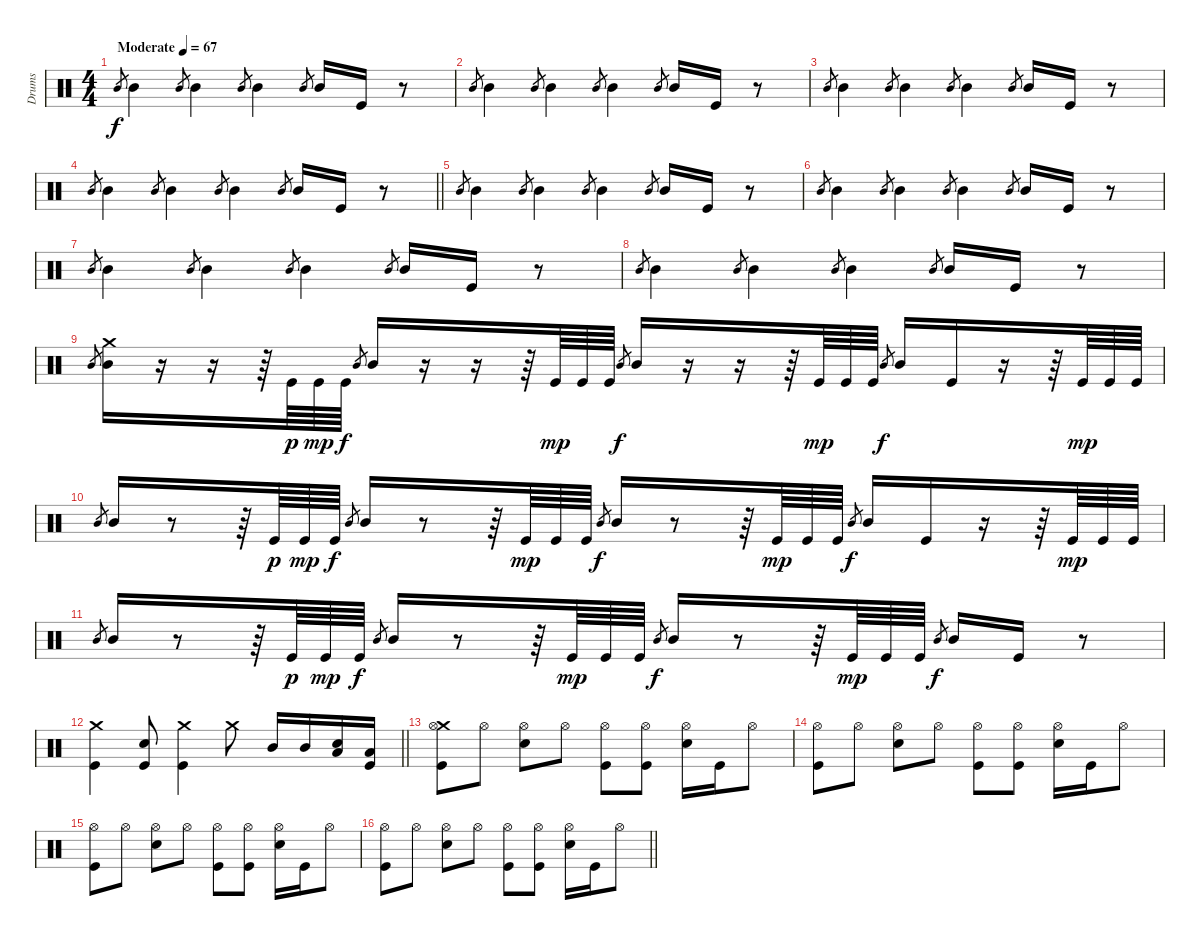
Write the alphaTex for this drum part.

\track ("Drums" "Drums") {instrument percussion}
\staff {score}
\articulation defaults
\ts (4 4)
\tempo (67 "Moderate")
\clef neutral
\ks c "Mid Tom (hit)".8{gr dy f} "Mid Tom (hit)".4 "Mid Tom (hit)".8{gr} "Mid Tom (hit)".4 "Mid Tom (hit)".8{gr} "Mid Tom (hit)".4 "Mid Tom (hit)".8{gr} "Mid Tom (hit)".16 "Kick (hit)".16
r.8 |
"Mid Tom (hit)".8{gr} "Mid Tom (hit)".4 "Mid Tom (hit)".8{gr} "Mid Tom (hit)".4 "Mid Tom (hit)".8{gr} "Mid Tom (hit)".4 "Mid Tom (hit)".8{gr} "Mid Tom (hit)".16 "Kick (hit)".16 r.8 |
"Mid Tom (hit)".8{gr} "Mid Tom (hit)".4 "Mid Tom (hit)".8{gr} "Mid Tom (hit)".4 "Mid Tom (hit)".8{gr} "Mid Tom (hit)".4 "Mid Tom (hit)".8{gr} "Mid Tom (hit)".16 "Kick (hit)".16 r.8 |
\barLineRight lightlight "Mid Tom (hit)".8{gr} "Mid Tom (hit)".4 "Mid Tom (hit)".8{gr} "Mid Tom (hit)".4 "Mid Tom (hit)".8{gr} "Mid Tom (hit)".4 "Mid Tom (hit)".8{gr} "Mid Tom (hit)".16 "Kick (hit)".16
r.8 |
"Mid Tom (hit)".8{gr} "Mid Tom (hit)".4 "Mid Tom (hit)".8{gr} "Mid Tom (hit)".4 "Mid Tom (hit)".8{gr} "Mid Tom (hit)".4 "Mid Tom (hit)".8{gr} "Mid Tom (hit)".16 "Kick (hit)".16 r.8 |
"Mid Tom (hit)".8{gr} "Mid Tom (hit)".4 "Mid Tom (hit)".8{gr} "Mid Tom (hit)".4 "Mid Tom (hit)".8{gr} "Mid Tom (hit)".4 "Mid Tom (hit)".8{gr} "Mid Tom (hit)".16 "Kick (hit)".16 r.8 |
"Mid Tom (hit)".8{gr} "Mid Tom (hit)".4 "Mid Tom (hit)".8{gr} "Mid Tom (hit)".4 "Mid Tom (hit)".8{gr} "Mid Tom (hit)".4 "Mid Tom (hit)".8{gr} "Mid Tom (hit)".16 "Kick (hit)".16 r.8 |
"Mid Tom (hit)".8{gr} "Mid Tom (hit)".4 "Mid Tom (hit)".8{gr} "Mid Tom (hit)".4 "Mid Tom (hit)".8{gr} "Mid Tom (hit)".4 "Mid Tom (hit)".8{gr} "Mid Tom (hit)".16 "Kick (hit)".16 r.8 |
"Mid Tom (hit)".8{gr} ("Mid Tom (hit)" "Crash medium (hit)").16 r.16 r.16 r.64 "Kick (hit)".64{dy p} "Kick (hit)".64{dy mp} "Kick (hit)".64{dy f} "Mid Tom (hit)".8{gr} "Mid Tom (hit)".16 r.16 r.16 r.64 "Kick (hit)".64{dy mp} "Kick (hit)".64 "Kick (hit)".64 "Mid Tom (hit)".8{gr dy f} "Mid Tom (hit)".16 r.16 r.16 r.64 "Kick (hit)".64{dy mp} "Kick (hit)".64 "Kick (hit)".64 "Mid Tom (hit)".8{gr dy f} "Mid Tom (hit)".16 "Kick (hit)".16 r.16 r.64 "Kick (hit)".64{dy mp} "Kick (hit)".64 "Kick (hit)".64 |
"Mid Tom (hit)".8{gr} "Mid Tom (hit)".16 r.8 r.64 "Kick (hit)".64{dy p} "Kick (hit)".64{dy mp} "Kick (hit)".64{dy f} "Mid Tom (hit)".8{gr} "Mid Tom (hit)".16 r.8 r.64 "Kick (hit)".64{dy mp} "Kick (hit)".64 "Kick (hit)".64 "Mid Tom (hit)".8{gr dy f} "Mid Tom (hit)".16 r.8 r.64 "Kick (hit)".64{dy mp} "Kick (hit)".64 "Kick (hit)".64 "Mid Tom (hit)".8{gr dy f} "Mid Tom (hit)".16 "Kick (hit)".16 r.16 r.64 "Kick (hit)".64{dy mp} "Kick (hit)".64 "Kick (hit)".64 |
"Mid Tom (hit)".8{gr} "Mid Tom (hit)".16 r.8 r.64 "Kick (hit)".64{dy p} "Kick (hit)".64{dy mp} "Kick (hit)".64{dy f} "Mid Tom (hit)".8{gr} "Mid Tom (hit)".16 r.8 r.64 "Kick (hit)".64{dy mp} "Kick (hit)".64 "Kick (hit)".64 "Mid Tom (hit)".8{gr dy f} "Mid Tom (hit)".16 r.8 r.64 "Kick (hit)".64{dy mp} "Kick (hit)".64 "Kick (hit)".64 "Mid Tom (hit)".8{gr dy f} "Mid Tom (hit)".16 "Kick (hit)".16 r.8 |
\barLineRight lightlight
("Crash medium (hit)" "Kick (hit)").4 ("Snare (hit) 2" "Kick (hit)").8 ("Crash medium (hit)" "Kick (hit)").4 "Crash medium (hit)".8 "Mid Tom (hit)".16 "Mid Tom (hit)".16 ("Snare (hit) 2" "Low Tom (hit)").16 ("Kick (hit)" "Low Tom (hit)").16 |
("Crash medium (hit)" "Hi-Hat (open)" "Kick (hit)").8 "Hi-Hat (open)".8 ("Hi-Hat (open)" "Snare (hit) 2").8 "Hi-Hat (open)".8 ("Hi-Hat (open)" "Kick (hit)").8 ("Hi-Hat (open)" "Kick (hit)").8 ("Hi-Hat (open)" "Snare (hit) 2").16 "Kick (hit)".16 "Hi-Hat (open)".8 |
("Hi-Hat (open)" "Kick (hit)").8 "Hi-Hat (open)".8 ("Hi-Hat (open)" "Snare (hit) 2").8 "Hi-Hat (open)".8 ("Hi-Hat (open)" "Kick (hit)").8 ("Hi-Hat (open)" "Kick (hit)").8 ("Hi-Hat (open)" "Snare (hit) 2").16 "Kick (hit)".16 "Hi-Hat (open)".8 |
("Hi-Hat (open)" "Kick (hit)").8 "Hi-Hat (open)".8 ("Hi-Hat (open)" "Snare (hit) 2").8 "Hi-Hat (open)".8 ("Hi-Hat (open)" "Kick (hit)").8 ("Hi-Hat (open)" "Kick (hit)").8 ("Hi-Hat (open)" "Snare (hit) 2").16 "Kick (hit)".16 "Hi-Hat (open)".8 |
\barLineRight lightlight
("Hi-Hat (open)" "Kick (hit)").8 "Hi-Hat (open)".8 ("Hi-Hat (open)" "Snare (hit) 2").8 "Hi-Hat (open)".8 ("Hi-Hat (open)" "Kick (hit)").8 ("Hi-Hat (open)" "Kick (hit)").8 ("Hi-Hat (open)" "Snare (hit) 2").16 "Kick (hit)".16 "Hi-Hat (open)".8
